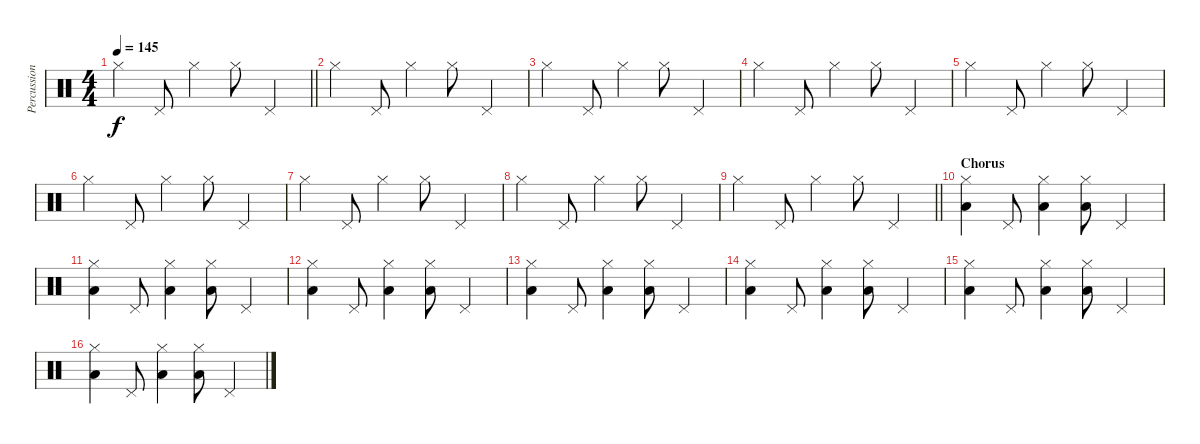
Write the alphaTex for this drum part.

\track ("Percussion" "Percussion") {instrument percussion}
\staff {score}
\articulation defaults
\ts (4 4)
\tempo 145
\clef neutral
\barLineRight lightlight
\ks c "Hi-Hat (closed)".4{dy f} "Pedal Hi-Hat (hit)".8 "Hi-Hat (closed)".4 "Hi-Hat (closed)".8 "Pedal Hi-Hat (hit)".4
|
"Hi-Hat (closed)".4 "Pedal Hi-Hat (hit)".8 "Hi-Hat (closed)".4 "Hi-Hat (closed)".8 "Pedal Hi-Hat (hit)".4 |
"Hi-Hat (closed)".4 "Pedal Hi-Hat (hit)".8 "Hi-Hat (closed)".4 "Hi-Hat (closed)".8 "Pedal Hi-Hat (hit)".4 |
"Hi-Hat (closed)".4 "Pedal Hi-Hat (hit)".8 "Hi-Hat (closed)".4 "Hi-Hat (closed)".8 "Pedal Hi-Hat (hit)".4 |
"Hi-Hat (closed)".4 "Pedal Hi-Hat (hit)".8 "Hi-Hat (closed)".4 "Hi-Hat (closed)".8 "Pedal Hi-Hat (hit)".4 |
"Hi-Hat (closed)".4 "Pedal Hi-Hat (hit)".8 "Hi-Hat (closed)".4 "Hi-Hat (closed)".8 "Pedal Hi-Hat (hit)".4 |
"Hi-Hat (closed)".4 "Pedal Hi-Hat (hit)".8 "Hi-Hat (closed)".4 "Hi-Hat (closed)".8 "Pedal Hi-Hat (hit)".4 |
"Hi-Hat (closed)".4 "Pedal Hi-Hat (hit)".8 "Hi-Hat (closed)".4 "Hi-Hat (closed)".8 "Pedal Hi-Hat (hit)".4 |
\barLineRight lightlight "Hi-Hat (closed)".4 "Pedal Hi-Hat (hit)".8 "Hi-Hat (closed)".4 "Hi-Hat (closed)".8 "Pedal Hi-Hat (hit)".4
|
\section ("" "Chorus")
("Hi-Hat (closed)" "Low Floor Tom (hit)").4 "Pedal Hi-Hat (hit)".8 ("Hi-Hat (closed)" "Low Floor Tom (hit)").4 ("Hi-Hat (closed)" "Low Floor Tom (hit)").8 "Pedal Hi-Hat (hit)".4 |
("Hi-Hat (closed)" "Low Floor Tom (hit)").4 "Pedal Hi-Hat (hit)".8 ("Hi-Hat (closed)" "Low Floor Tom (hit)").4 ("Hi-Hat (closed)" "Low Floor Tom (hit)").8 "Pedal Hi-Hat (hit)".4 |
("Hi-Hat (closed)" "Low Floor Tom (hit)").4 "Pedal Hi-Hat (hit)".8 ("Hi-Hat (closed)" "Low Floor Tom (hit)").4 ("Hi-Hat (closed)" "Low Floor Tom (hit)").8 "Pedal Hi-Hat (hit)".4 |
("Hi-Hat (closed)" "Low Floor Tom (hit)").4 "Pedal Hi-Hat (hit)".8 ("Hi-Hat (closed)" "Low Floor Tom (hit)").4 ("Hi-Hat (closed)" "Low Floor Tom (hit)").8 "Pedal Hi-Hat (hit)".4 |
("Hi-Hat (closed)" "Low Floor Tom (hit)").4 "Pedal Hi-Hat (hit)".8 ("Hi-Hat (closed)" "Low Floor Tom (hit)").4 ("Hi-Hat (closed)" "Low Floor Tom (hit)").8 "Pedal Hi-Hat (hit)".4 |
("Hi-Hat (closed)" "Low Floor Tom (hit)").4 "Pedal Hi-Hat (hit)".8 ("Hi-Hat (closed)" "Low Floor Tom (hit)").4 ("Hi-Hat (closed)" "Low Floor Tom (hit)").8 "Pedal Hi-Hat (hit)".4 |
("Hi-Hat (closed)" "Low Floor Tom (hit)").4 "Pedal Hi-Hat (hit)".8 ("Hi-Hat (closed)" "Low Floor Tom (hit)").4 ("Hi-Hat (closed)" "Low Floor Tom (hit)").8 "Pedal Hi-Hat (hit)".4
